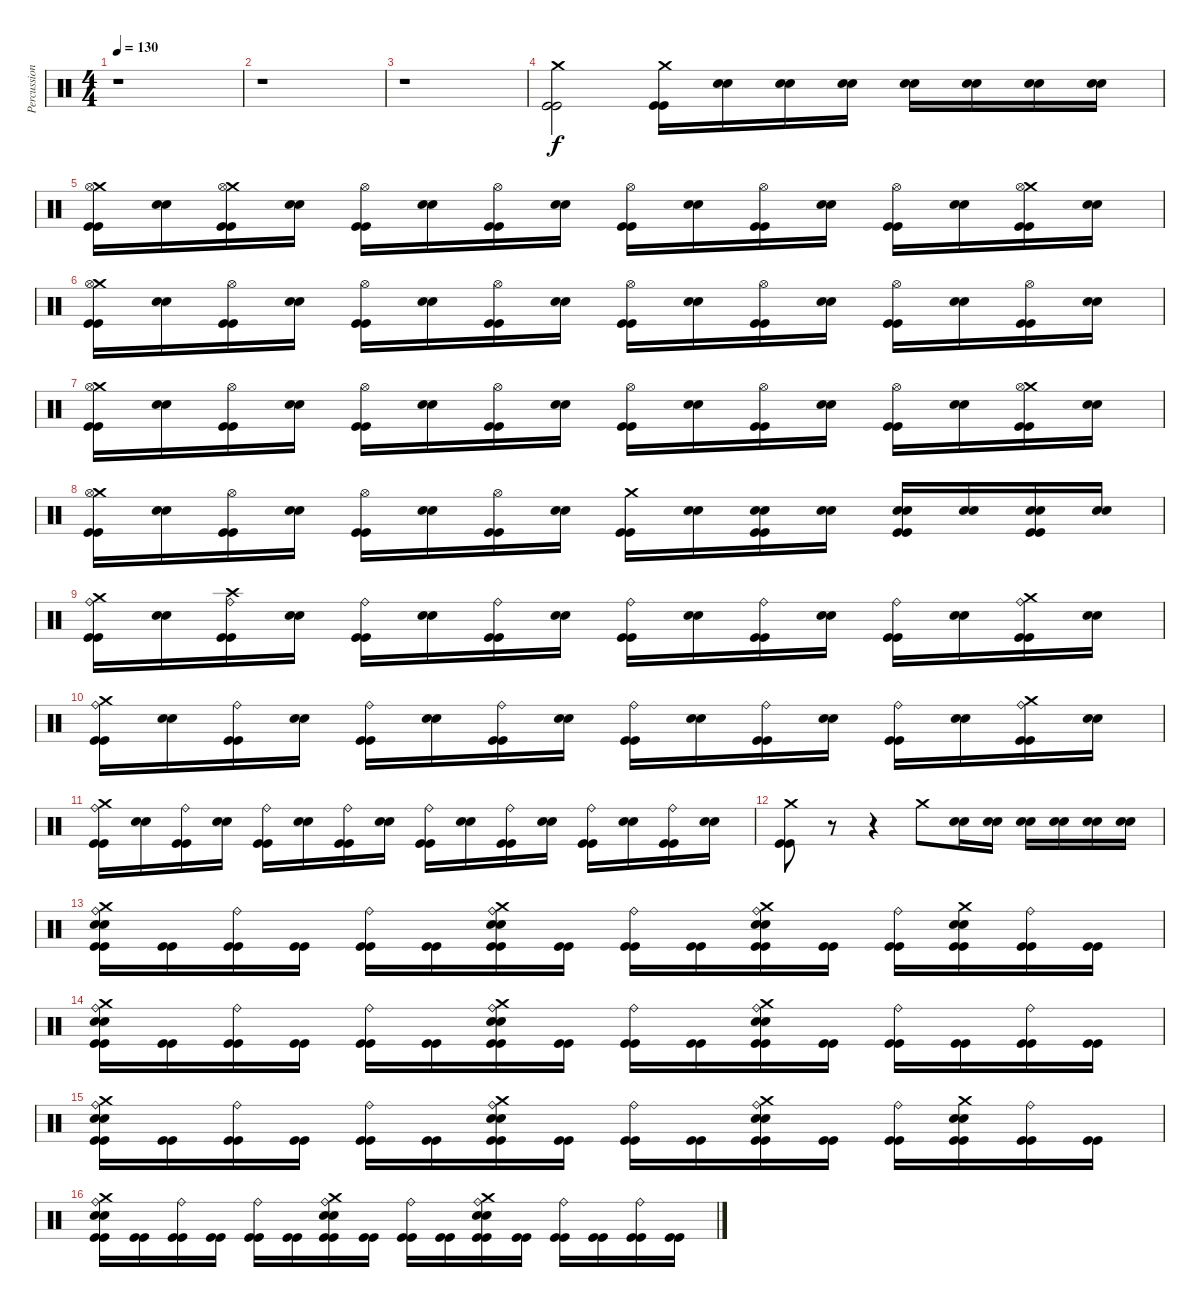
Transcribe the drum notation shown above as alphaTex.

\track ("Percussion" "Percussion") {instrument percussion}
\staff {score}
\articulation defaults
\ts (4 4)
\tempo 130
\clef neutral
\ks c
r.1{dy f} |
r.1 |
r.1 |
("Crash medium (hit)" "Kick (hit)" "Kick (hit)").2 ("Crash medium (hit)" "Kick (hit)" "Kick (hit)").16 ("Snare (hit) 2" "Snare (hit) 2").16 ("Snare (hit) 2" "Snare (hit) 2").16 ("Snare (hit) 2" "Snare (hit) 2").16 ("Snare (hit) 2" "Snare (hit) 2").16 ("Snare (hit) 2" "Snare (hit) 2").16 ("Snare (hit) 2" "Snare (hit) 2").16 ("Snare (hit) 2" "Snare (hit) 2").16 |
("Crash medium (hit)" "Hi-Hat (open)" "Kick (hit)" "Kick (hit)").16 ("Snare (hit) 2" "Snare (hit) 2").16 ("Crash medium (hit)" "Hi-Hat (open)" "Kick (hit)" "Kick (hit)").16 ("Snare (hit) 2" "Snare (hit) 2").16 ("Hi-Hat (open)" "Kick (hit)" "Kick (hit)").16 ("Snare (hit) 2" "Snare (hit) 2").16 ("Hi-Hat (open)" "Kick (hit)" "Kick (hit)").16 ("Snare (hit) 2" "Snare (hit) 2").16 ("Hi-Hat (open)" "Kick (hit)" "Kick (hit)").16 ("Snare (hit) 2" "Snare (hit) 2").16 ("Hi-Hat (open)" "Kick (hit)" "Kick (hit)").16 ("Snare (hit) 2" "Snare (hit) 2").16 ("Hi-Hat (open)" "Kick (hit)" "Kick (hit)").16 ("Snare (hit) 2" "Snare (hit) 2").16 ("Crash medium (hit)" "Hi-Hat (open)" "Kick (hit)" "Kick (hit)").16 ("Snare (hit) 2" "Snare (hit) 2").16 |
("Crash medium (hit)" "Hi-Hat (open)" "Kick (hit)" "Kick (hit)").16 ("Snare (hit) 2" "Snare (hit) 2").16 ("Hi-Hat (open)" "Kick (hit)" "Kick (hit)").16 ("Snare (hit) 2" "Snare (hit) 2").16 ("Hi-Hat (open)" "Kick (hit)" "Kick (hit)").16 ("Snare (hit) 2" "Snare (hit) 2").16 ("Hi-Hat (open)" "Kick (hit)" "Kick (hit)").16 ("Snare (hit) 2" "Snare (hit) 2").16 ("Hi-Hat (open)" "Kick (hit)" "Kick (hit)").16 ("Snare (hit) 2" "Snare (hit) 2").16 ("Hi-Hat (open)" "Kick (hit)" "Kick (hit)").16 ("Snare (hit) 2" "Snare (hit) 2").16 ("Hi-Hat (open)" "Kick (hit)" "Kick (hit)").16 ("Snare (hit) 2" "Snare (hit) 2").16 ("Hi-Hat (open)" "Kick (hit)" "Kick (hit)").16 ("Snare (hit) 2" "Snare (hit) 2").16 |
("Crash medium (hit)" "Hi-Hat (open)" "Kick (hit)" "Kick (hit)").16 ("Snare (hit) 2" "Snare (hit) 2").16 ("Hi-Hat (open)" "Kick (hit)" "Kick (hit)").16 ("Snare (hit) 2" "Snare (hit) 2").16 ("Hi-Hat (open)" "Kick (hit)" "Kick (hit)").16 ("Snare (hit) 2" "Snare (hit) 2").16 ("Hi-Hat (open)" "Kick (hit)" "Kick (hit)").16 ("Snare (hit) 2" "Snare (hit) 2").16 ("Hi-Hat (open)" "Kick (hit)" "Kick (hit)").16 ("Snare (hit) 2" "Snare (hit) 2").16 ("Hi-Hat (open)" "Kick (hit)" "Kick (hit)").16 ("Snare (hit) 2" "Snare (hit) 2").16 ("Hi-Hat (open)" "Kick (hit)" "Kick (hit)").16 ("Snare (hit) 2" "Snare (hit) 2").16 ("Crash medium (hit)" "Hi-Hat (open)" "Kick (hit)" "Kick (hit)").16 ("Snare (hit) 2" "Snare (hit) 2").16 |
("Crash medium (hit)" "Hi-Hat (open)" "Kick (hit)" "Kick (hit)").16 ("Snare (hit) 2" "Snare (hit) 2").16 ("Hi-Hat (open)" "Kick (hit)" "Kick (hit)").16 ("Snare (hit) 2" "Snare (hit) 2").16 ("Hi-Hat (open)" "Kick (hit)" "Kick (hit)").16 ("Snare (hit) 2" "Snare (hit) 2").16 ("Hi-Hat (open)" "Kick (hit)" "Kick (hit)").16 ("Snare (hit) 2" "Snare (hit) 2").16 ("Crash medium (hit)" "Kick (hit)" "Kick (hit)").16 ("Snare (hit) 2" "Snare (hit) 2").16 ("Snare (hit) 2" "Snare (hit) 2" "Kick (hit)" "Kick (hit)").16 ("Snare (hit) 2" "Snare (hit) 2").16 ("Snare (hit) 2" "Snare (hit) 2" "Kick (hit)" "Kick (hit)").16 ("Snare (hit) 2" "Snare (hit) 2").16 ("Snare (hit) 2" "Snare (hit) 2" "Kick (hit)" "Kick (hit)").16 ("Snare (hit) 2" "Snare (hit) 2").16 |
("Crash medium (hit)" "Ride (bell)" "Kick (hit)" "Kick (hit)").16 ("Snare (hit) 2" "Snare (hit) 2").16 ("Crash high (hit)" "Ride (bell)" "Kick (hit)" "Kick (hit)").16 ("Snare (hit) 2" "Snare (hit) 2").16 ("Ride (bell)" "Kick (hit)" "Kick (hit)").16 ("Snare (hit) 2" "Snare (hit) 2").16 ("Ride (bell)" "Kick (hit)" "Kick (hit)").16 ("Snare (hit) 2" "Snare (hit) 2").16 ("Ride (bell)" "Kick (hit)" "Kick (hit)").16 ("Snare (hit) 2" "Snare (hit) 2").16 ("Ride (bell)" "Kick (hit)" "Kick (hit)").16 ("Snare (hit) 2" "Snare (hit) 2").16 ("Ride (bell)" "Kick (hit)" "Kick (hit)").16 ("Snare (hit) 2" "Snare (hit) 2").16 ("Crash medium (hit)" "Ride (bell)" "Kick (hit)" "Kick (hit)").16 ("Snare (hit) 2" "Snare (hit) 2").16 |
("Crash medium (hit)" "Ride (bell)" "Kick (hit)" "Kick (hit)").16 ("Snare (hit) 2" "Snare (hit) 2").16 ("Ride (bell)" "Kick (hit)" "Kick (hit)").16 ("Snare (hit) 2" "Snare (hit) 2").16 ("Ride (bell)" "Kick (hit)" "Kick (hit)").16 ("Snare (hit) 2" "Snare (hit) 2").16 ("Ride (bell)" "Kick (hit)" "Kick (hit)").16 ("Snare (hit) 2" "Snare (hit) 2").16 ("Ride (bell)" "Kick (hit)" "Kick (hit)").16 ("Snare (hit) 2" "Snare (hit) 2").16 ("Ride (bell)" "Kick (hit)" "Kick (hit)").16 ("Snare (hit) 2" "Snare (hit) 2").16 ("Ride (bell)" "Kick (hit)" "Kick (hit)").16 ("Snare (hit) 2" "Snare (hit) 2").16 ("Crash medium (hit)" "Ride (bell)" "Kick (hit)" "Kick (hit)").16 ("Snare (hit) 2" "Snare (hit) 2").16 |
("Crash medium (hit)" "Ride (bell)" "Kick (hit)" "Kick (hit)").16 ("Snare (hit) 2" "Snare (hit) 2").16 ("Ride (bell)" "Kick (hit)" "Kick (hit)").16 ("Snare (hit) 2" "Snare (hit) 2").16 ("Ride (bell)" "Kick (hit)" "Kick (hit)").16 ("Snare (hit) 2" "Snare (hit) 2").16 ("Ride (bell)" "Kick (hit)" "Kick (hit)").16 ("Snare (hit) 2" "Snare (hit) 2").16 ("Ride (bell)" "Kick (hit)" "Kick (hit)").16 ("Snare (hit) 2" "Snare (hit) 2").16 ("Ride (bell)" "Kick (hit)" "Kick (hit)").16 ("Snare (hit) 2" "Snare (hit) 2").16 ("Ride (bell)" "Kick (hit)" "Kick (hit)").16 ("Snare (hit) 2" "Snare (hit) 2").16 ("Ride (bell)" "Kick (hit)" "Kick (hit)").16 ("Snare (hit) 2" "Snare (hit) 2").16 |
("Crash medium (hit)" "Kick (hit)" "Kick (hit)").8 r.8 r.4 "Crash medium (hit)".8 ("Snare (hit) 2" "Snare (hit) 2").16 ("Snare (hit) 2" "Snare (hit) 2").16 ("Snare (hit) 2" "Snare (hit) 2").16 ("Snare (hit) 2" "Snare (hit) 2").16 ("Snare (hit) 2" "Snare (hit) 2").16 ("Snare (hit) 2" "Snare (hit) 2").16 |
("Crash medium (hit)" "Snare (hit) 2" "Snare (hit) 2" "Ride (bell)" "Kick (hit)" "Kick (hit)").16 ("Kick (hit)" "Kick (hit)").16 ("Ride (bell)" "Kick (hit)" "Kick (hit)").16 ("Kick (hit)" "Kick (hit)").16 ("Ride (bell)" "Kick (hit)" "Kick (hit)").16 ("Kick (hit)" "Kick (hit)").16 ("Crash medium (hit)" "Snare (hit) 2" "Snare (hit) 2" "Ride (bell)" "Kick (hit)" "Kick (hit)").16 ("Kick (hit)" "Kick (hit)").16 ("Ride (bell)" "Kick (hit)" "Kick (hit)").16 ("Kick (hit)" "Kick (hit)").16 ("Crash medium (hit)" "Snare (hit) 2" "Snare (hit) 2" "Ride (bell)" "Kick (hit)" "Kick (hit)").16 ("Kick (hit)" "Kick (hit)").16 ("Ride (bell)" "Kick (hit)" "Kick (hit)").16 ("Crash medium (hit)" "Snare (hit) 2" "Snare (hit) 2" "Kick (hit)" "Kick (hit)").16 ("Ride (bell)" "Kick (hit)" "Kick (hit)").16 ("Kick (hit)" "Kick (hit)").16 |
("Crash medium (hit)" "Snare (hit) 2" "Snare (hit) 2" "Ride (bell)" "Kick (hit)" "Kick (hit)").16 ("Kick (hit)" "Kick (hit)").16 ("Ride (bell)" "Kick (hit)" "Kick (hit)").16 ("Kick (hit)" "Kick (hit)").16 ("Ride (bell)" "Kick (hit)" "Kick (hit)").16 ("Kick (hit)" "Kick (hit)").16 ("Crash medium (hit)" "Snare (hit) 2" "Snare (hit) 2" "Ride (bell)" "Kick (hit)" "Kick (hit)").16 ("Kick (hit)" "Kick (hit)").16 ("Ride (bell)" "Kick (hit)" "Kick (hit)").16 ("Kick (hit)" "Kick (hit)").16 ("Crash medium (hit)" "Snare (hit) 2" "Snare (hit) 2" "Ride (bell)" "Kick (hit)" "Kick (hit)").16 ("Kick (hit)" "Kick (hit)").16 ("Ride (bell)" "Kick (hit)" "Kick (hit)").16 ("Kick (hit)" "Kick (hit)").16 ("Ride (bell)" "Kick (hit)" "Kick (hit)").16 ("Kick (hit)" "Kick (hit)").16 |
("Crash medium (hit)" "Snare (hit) 2" "Snare (hit) 2" "Ride (bell)" "Kick (hit)" "Kick (hit)").16 ("Kick (hit)" "Kick (hit)").16 ("Ride (bell)" "Kick (hit)" "Kick (hit)").16 ("Kick (hit)" "Kick (hit)").16 ("Ride (bell)" "Kick (hit)" "Kick (hit)").16 ("Kick (hit)" "Kick (hit)").16 ("Crash medium (hit)" "Snare (hit) 2" "Snare (hit) 2" "Ride (bell)" "Kick (hit)" "Kick (hit)").16 ("Kick (hit)" "Kick (hit)").16 ("Ride (bell)" "Kick (hit)" "Kick (hit)").16 ("Kick (hit)" "Kick (hit)").16 ("Crash medium (hit)" "Snare (hit) 2" "Snare (hit) 2" "Ride (bell)" "Kick (hit)" "Kick (hit)").16 ("Kick (hit)" "Kick (hit)").16 ("Ride (bell)" "Kick (hit)" "Kick (hit)").16 ("Crash medium (hit)" "Snare (hit) 2" "Snare (hit) 2" "Kick (hit)" "Kick (hit)").16 ("Ride (bell)" "Kick (hit)" "Kick (hit)").16 ("Kick (hit)" "Kick (hit)").16 |
("Crash medium (hit)" "Snare (hit) 2" "Snare (hit) 2" "Ride (bell)" "Kick (hit)" "Kick (hit)").16 ("Kick (hit)" "Kick (hit)").16 ("Ride (bell)" "Kick (hit)" "Kick (hit)").16 ("Kick (hit)" "Kick (hit)").16 ("Ride (bell)" "Kick (hit)" "Kick (hit)").16 ("Kick (hit)" "Kick (hit)").16 ("Crash medium (hit)" "Snare (hit) 2" "Snare (hit) 2" "Ride (bell)" "Kick (hit)" "Kick (hit)").16 ("Kick (hit)" "Kick (hit)").16 ("Ride (bell)" "Kick (hit)" "Kick (hit)").16 ("Kick (hit)" "Kick (hit)").16 ("Crash medium (hit)" "Snare (hit) 2" "Snare (hit) 2" "Ride (bell)" "Kick (hit)" "Kick (hit)").16 ("Kick (hit)" "Kick (hit)").16 ("Ride (bell)" "Kick (hit)" "Kick (hit)").16 ("Kick (hit)" "Kick (hit)").16 ("Ride (bell)" "Kick (hit)" "Kick (hit)").16 ("Kick (hit)" "Kick (hit)").16
